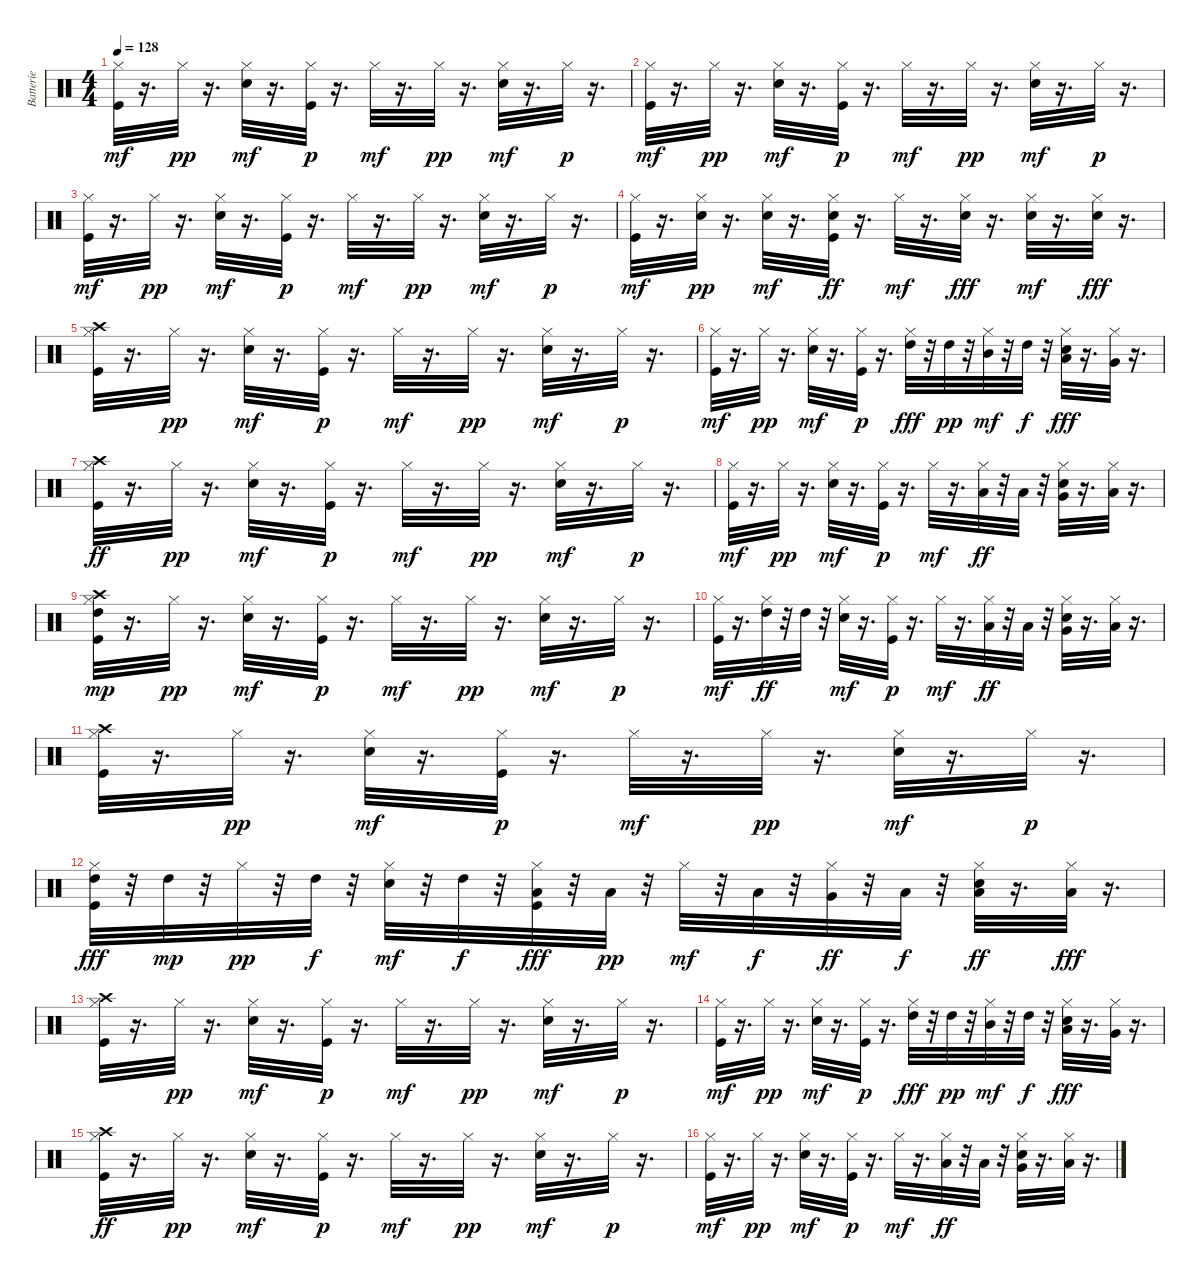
\track ("Batterie" "Batterie") {instrument percussion}
\staff {score}
\articulation defaults
\ts (4 4)
\tempo 128
\clef neutral
\ks c
("Kick (hit)" "Hi-Hat (closed)").32{dy mf} r.16{d} "Hi-Hat (closed)".32{dy pp} r.16{d} ("Electric Snare (hit)" "Hi-Hat (closed)").32{dy mf} r.16{d} ("Kick (hit)" "Hi-Hat (closed)").32{dy p} r.16{d} "Hi-Hat (closed)".32{dy mf} r.16{d} "Hi-Hat (closed)".32{dy pp} r.16{d} ("Electric Snare (hit)" "Hi-Hat (closed)").32{dy mf} r.16{d} "Hi-Hat (closed)".32{dy p} r.16{d} |
("Kick (hit)" "Hi-Hat (closed)").32{dy mf} r.16{d} "Hi-Hat (closed)".32{dy pp} r.16{d} ("Electric Snare (hit)" "Hi-Hat (closed)").32{dy mf} r.16{d} ("Kick (hit)" "Hi-Hat (closed)").32{dy p} r.16{d} "Hi-Hat (closed)".32{dy mf} r.16{d} "Hi-Hat (closed)".32{dy pp} r.16{d} ("Electric Snare (hit)" "Hi-Hat (closed)").32{dy mf} r.16{d} "Hi-Hat (closed)".32{dy p} r.16{d} |
("Kick (hit)" "Hi-Hat (closed)").32{dy mf} r.16{d} "Hi-Hat (closed)".32{dy pp} r.16{d} ("Electric Snare (hit)" "Hi-Hat (closed)").32{dy mf} r.16{d} ("Kick (hit)" "Hi-Hat (closed)").32{dy p} r.16{d} "Hi-Hat (closed)".32{dy mf} r.16{d} "Hi-Hat (closed)".32{dy pp} r.16{d} ("Electric Snare (hit)" "Hi-Hat (closed)").32{dy mf} r.16{d} "Hi-Hat (closed)".32{dy p} r.16{d} |
("Kick (hit)" "Hi-Hat (closed)").32{dy mf} r.16{d} ("Hi-Hat (closed)" "Electric Snare (hit)").32{dy pp} r.16{d} ("Electric Snare (hit)" "Hi-Hat (closed)").32{dy mf} r.16{d} ("Kick (hit)" "Hi-Hat (closed)" "Electric Snare (hit)").32{dy ff} r.16{d} "Hi-Hat (closed)".32{dy mf} r.16{d} ("Hi-Hat (closed)" "Electric Snare (hit)").32{dy fff} r.16{d} ("Electric Snare (hit)" "Hi-Hat (closed)").32{dy mf} r.16{d} ("Hi-Hat (closed)" "Electric Snare (hit)").32{dy fff} r.16{d} |
("Kick (hit)" "Hi-Hat (closed)" "Crash high (hit)").32 r.16{d} "Hi-Hat (closed)".32{dy pp} r.16{d} ("Electric Snare (hit)" "Hi-Hat (closed)").32{dy mf} r.16{d} ("Kick (hit)" "Hi-Hat (closed)").32{dy p} r.16{d} "Hi-Hat (closed)".32{dy mf} r.16{d} "Hi-Hat (closed)".32{dy pp} r.16{d} ("Electric Snare (hit)" "Hi-Hat (closed)").32{dy mf} r.16{d} "Hi-Hat (closed)".32{dy p} r.16{d} |
("Kick (hit)" "Hi-Hat (closed)").32{dy mf} r.16{d} "Hi-Hat (closed)".32{dy pp} r.16{d} ("Electric Snare (hit)" "Hi-Hat (closed)").32{dy mf} r.16{d} ("Kick (hit)" "Hi-Hat (closed)").32{dy p} r.16{d} ("Hi-Hat (closed)" "High Tom (hit)").32{dy fff} r.32 "High Tom (hit)".32{dy pp} r.32 ("Hi-Hat (closed)" "Mid Tom (hit)").32{dy mf} r.32 "High Tom (hit)".32{dy f} r.32 ("Electric Snare (hit)" "Hi-Hat (closed)" "Low Tom (hit)").32{dy fff} r.16{d} ("Hi-Hat (closed)" "Very Low Tom (hit)").32 r.16{d} |
("Kick (hit)" "Hi-Hat (closed)" "Crash high (hit)").32{dy ff} r.16{d} "Hi-Hat (closed)".32{dy pp} r.16{d} ("Electric Snare (hit)" "Hi-Hat (closed)").32{dy mf} r.16{d} ("Kick (hit)" "Hi-Hat (closed)").32{dy p} r.16{d} "Hi-Hat (closed)".32{dy mf} r.16{d} "Hi-Hat (closed)".32{dy pp} r.16{d} ("Electric Snare (hit)" "Hi-Hat (closed)").32{dy mf} r.16{d} "Hi-Hat (closed)".32{dy p} r.16{d} |
("Kick (hit)" "Hi-Hat (closed)").32{dy mf} r.16{d} "Hi-Hat (closed)".32{dy pp} r.16{d} ("Electric Snare (hit)" "Hi-Hat (closed)").32{dy mf} r.16{d} ("Kick (hit)" "Hi-Hat (closed)").32{dy p} r.16{d} "Hi-Hat (closed)".32{dy mf} r.16{d} ("Hi-Hat (closed)" "Low Tom (hit)").32{dy ff} r.32 "Low Tom (hit)".32 r.32 ("Electric Snare (hit)" "Hi-Hat (closed)" "Very Low Tom (hit)").32 r.16{d} ("Hi-Hat (closed)" "Low Floor Tom (hit)").32 r.16{d} |
("Kick (hit)" "Hi-Hat (closed)" "High Tom (hit)" "Crash high (hit)").32{dy mp} r.16{d} "Hi-Hat (closed)".32{dy pp} r.16{d} ("Electric Snare (hit)" "Hi-Hat (closed)").32{dy mf} r.16{d} ("Kick (hit)" "Hi-Hat (closed)").32{dy p} r.16{d} "Hi-Hat (closed)".32{dy mf} r.16{d} "Hi-Hat (closed)".32{dy pp} r.16{d} ("Electric Snare (hit)" "Hi-Hat (closed)").32{dy mf} r.16{d} "Hi-Hat (closed)".32{dy p} r.16{d} |
("Kick (hit)" "Hi-Hat (closed)").32{dy mf} r.16{d} ("Hi-Hat (closed)" "High Tom (hit)").32{dy ff} r.32 "High Tom (hit)".32 r.32 ("Electric Snare (hit)" "Hi-Hat (closed)").32{dy mf} r.16{d} ("Kick (hit)" "Hi-Hat (closed)").32{dy p} r.16{d} "Hi-Hat (closed)".32{dy mf} r.16{d} ("Hi-Hat (closed)" "Low Tom (hit)").32{dy ff} r.32 "Low Tom (hit)".32 r.32 ("Electric Snare (hit)" "Hi-Hat (closed)" "Very Low Tom (hit)").32 r.16{d} ("Hi-Hat (closed)" "Low Floor Tom (hit)").32 r.16{d} |
("Kick (hit)" "Hi-Hat (closed)" "Crash high (hit)").32 r.16{d} "Hi-Hat (closed)".32{dy pp} r.16{d} ("Electric Snare (hit)" "Hi-Hat (closed)").32{dy mf} r.16{d} ("Kick (hit)" "Hi-Hat (closed)").32{dy p} r.16{d} "Hi-Hat (closed)".32{dy mf} r.16{d} "Hi-Hat (closed)".32{dy pp} r.16{d} ("Electric Snare (hit)" "Hi-Hat (closed)").32{dy mf} r.16{d} "Hi-Hat (closed)".32{dy p} r.16{d} |
("Kick (hit)" "Hi-Hat (closed)" "High Tom (hit)").32{dy fff} r.32 "High Tom (hit)".32{dy mp} r.32 "Hi-Hat (closed)".32{dy pp} r.32 "High Tom (hit)".32{dy f} r.32 ("Electric Snare (hit)" "Hi-Hat (closed)").32{dy mf} r.32 "High Tom (hit)".32{dy f} r.32 ("Kick (hit)" "Hi-Hat (closed)" "Low Tom (hit)").32{dy fff} r.32 "Low Tom (hit)".32{dy pp} r.32 "Hi-Hat (closed)".32{dy mf} r.32 "Low Tom (hit)".32{dy f} r.32 ("Hi-Hat (closed)" "Very Low Tom (hit)").32{dy ff} r.32 "Low Tom (hit)".32{dy f} r.32 ("Electric Snare (hit)" "Hi-Hat (closed)" "Low Floor Tom (hit)").32{dy ff} r.16{d} ("Hi-Hat (closed)" "Low Floor Tom (hit)").32{dy fff} r.16{d} |
("Kick (hit)" "Hi-Hat (closed)" "Crash high (hit)").32 r.16{d} "Hi-Hat (closed)".32{dy pp} r.16{d} ("Electric Snare (hit)" "Hi-Hat (closed)").32{dy mf} r.16{d} ("Kick (hit)" "Hi-Hat (closed)").32{dy p} r.16{d} "Hi-Hat (closed)".32{dy mf} r.16{d} "Hi-Hat (closed)".32{dy pp} r.16{d} ("Electric Snare (hit)" "Hi-Hat (closed)").32{dy mf} r.16{d} "Hi-Hat (closed)".32{dy p} r.16{d} |
("Kick (hit)" "Hi-Hat (closed)").32{dy mf} r.16{d} "Hi-Hat (closed)".32{dy pp} r.16{d} ("Electric Snare (hit)" "Hi-Hat (closed)").32{dy mf} r.16{d} ("Kick (hit)" "Hi-Hat (closed)").32{dy p} r.16{d} ("Hi-Hat (closed)" "High Tom (hit)").32{dy fff} r.32 "High Tom (hit)".32{dy pp} r.32 ("Hi-Hat (closed)" "Mid Tom (hit)").32{dy mf} r.32 "High Tom (hit)".32{dy f} r.32 ("Electric Snare (hit)" "Hi-Hat (closed)" "Low Tom (hit)").32{dy fff} r.16{d} ("Hi-Hat (closed)" "Very Low Tom (hit)").32 r.16{d} |
("Kick (hit)" "Hi-Hat (closed)" "Crash high (hit)").32{dy ff} r.16{d} "Hi-Hat (closed)".32{dy pp} r.16{d} ("Electric Snare (hit)" "Hi-Hat (closed)").32{dy mf} r.16{d} ("Kick (hit)" "Hi-Hat (closed)").32{dy p} r.16{d} "Hi-Hat (closed)".32{dy mf} r.16{d} "Hi-Hat (closed)".32{dy pp} r.16{d} ("Electric Snare (hit)" "Hi-Hat (closed)").32{dy mf} r.16{d} "Hi-Hat (closed)".32{dy p} r.16{d} |
("Kick (hit)" "Hi-Hat (closed)").32{dy mf} r.16{d} "Hi-Hat (closed)".32{dy pp} r.16{d} ("Electric Snare (hit)" "Hi-Hat (closed)").32{dy mf} r.16{d} ("Kick (hit)" "Hi-Hat (closed)").32{dy p} r.16{d} "Hi-Hat (closed)".32{dy mf} r.16{d} ("Hi-Hat (closed)" "Low Tom (hit)").32{dy ff} r.32 "Low Tom (hit)".32 r.32 ("Electric Snare (hit)" "Hi-Hat (closed)" "Very Low Tom (hit)").32 r.16{d} ("Hi-Hat (closed)" "Low Floor Tom (hit)").32 r.16{d}
